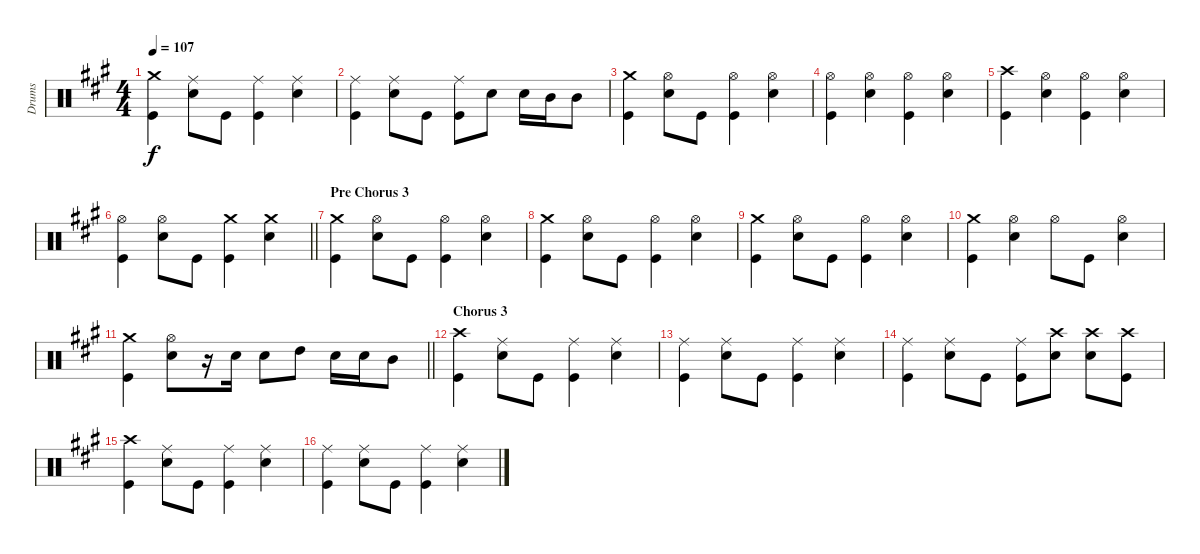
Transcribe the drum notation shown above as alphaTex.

\track ("Drums" "Drums") {instrument percussion}
\staff {score}
\articulation defaults
\ts (4 4)
\tempo 107
\clef neutral
\ks a
("Crash medium (hit)" "Kick (hit)").4{dy f} ("Ride (middle)" "Snare (hit) 2").8 "Kick (hit)".8 ("Ride (middle)" "Kick (hit)").4 ("Ride (middle)" "Snare (hit) 2").4 |
("Ride (middle)" "Kick (hit)").4 ("Ride (middle)" "Snare (hit) 2").8 "Kick (hit)".8 ("Ride (middle)" "Kick (hit)").8 "Snare (hit) 2".8 "Snare (hit) 2".16 "Mid Tom (hit)".16 "Mid Tom (hit)".8 |
("Crash medium (hit)" "Kick (hit)").4 ("Hi-Hat (open)" "Snare (hit) 2").8 "Kick (hit)".8 ("Hi-Hat (open)" "Kick (hit)").4 ("Hi-Hat (open)" "Snare (hit) 2").4 |
("Hi-Hat (open)" "Kick (hit)").4 ("Hi-Hat (open)" "Snare (hit) 2").4 ("Hi-Hat (open)" "Kick (hit)").4 ("Hi-Hat (open)" "Snare (hit) 2").4 |
("Crash high (hit)" "Kick (hit)").4 ("Hi-Hat (open)" "Snare (hit) 2").4 ("Hi-Hat (open)" "Kick (hit)").4 ("Hi-Hat (open)" "Snare (hit) 2").4 |
\barLineRight lightlight
("Hi-Hat (open)" "Kick (hit)").4 ("Hi-Hat (open)" "Snare (hit) 2").8 "Kick (hit)".8 ("Crash medium (hit)" "Kick (hit)").4 ("Crash medium (hit)" "Snare (hit) 2").4 |
\section ("" "Pre Chorus 3")
("Crash medium (hit)" "Kick (hit)").4 ("Hi-Hat (open)" "Snare (hit) 2").8 "Kick (hit)".8 ("Hi-Hat (open)" "Kick (hit)").4 ("Hi-Hat (open)" "Snare (hit) 2").4 |
("Crash medium (hit)" "Kick (hit)").4 ("Hi-Hat (open)" "Snare (hit) 2").8 "Kick (hit)".8 ("Hi-Hat (open)" "Kick (hit)").4 ("Hi-Hat (open)" "Snare (hit) 2").4 |
("Crash medium (hit)" "Kick (hit)").4 ("Hi-Hat (open)" "Snare (hit) 2").8 "Kick (hit)".8 ("Hi-Hat (open)" "Kick (hit)").4 ("Hi-Hat (open)" "Snare (hit) 2").4 |
("Crash medium (hit)" "Kick (hit)").4 ("Hi-Hat (open)" "Snare (hit) 2").4 "Hi-Hat (open)".8 "Kick (hit)".8 ("Hi-Hat (open)" "Snare (hit) 2").4 |
\barLineRight lightlight
("Crash medium (hit)" "Kick (hit)").4 ("Hi-Hat (open)" "Snare (hit) 2").8 r.16 "Snare (hit) 2".16 "Snare (hit) 2".8 "High Tom (hit)".8 "Snare (hit) 2".16 "Snare (hit) 2".16 "Mid Tom (hit)".8 |
\section ("" "Chorus 3")
("Crash high (hit)" "Kick (hit)").4 ("Ride (middle)" "Snare (hit) 2").8 "Kick (hit)".8 ("Ride (middle)" "Kick (hit)").4 ("Ride (middle)" "Snare (hit) 2").4 |
("Ride (middle)" "Kick (hit)").4 ("Ride (middle)" "Snare (hit) 2").8 "Kick (hit)".8 ("Ride (middle)" "Kick (hit)").4 ("Ride (middle)" "Snare (hit) 2").4 |
("Ride (middle)" "Kick (hit)").4 ("Ride (middle)" "Snare (hit) 2").8 "Kick (hit)".8 ("Ride (middle)" "Kick (hit)").8 ("Crash high (hit)" "Snare (hit) 2").8 ("Crash high (hit)" "Snare (hit) 2").8 ("Crash high (hit)" "Kick (hit)").8 |
("Crash high (hit)" "Kick (hit)").4 ("Ride (middle)" "Snare (hit) 2").8 "Kick (hit)".8 ("Ride (middle)" "Kick (hit)").4 ("Ride (middle)" "Snare (hit) 2").4 |
("Ride (middle)" "Kick (hit)").4 ("Ride (middle)" "Snare (hit) 2").8 "Kick (hit)".8 ("Ride (middle)" "Kick (hit)").4 ("Ride (middle)" "Snare (hit) 2").4
